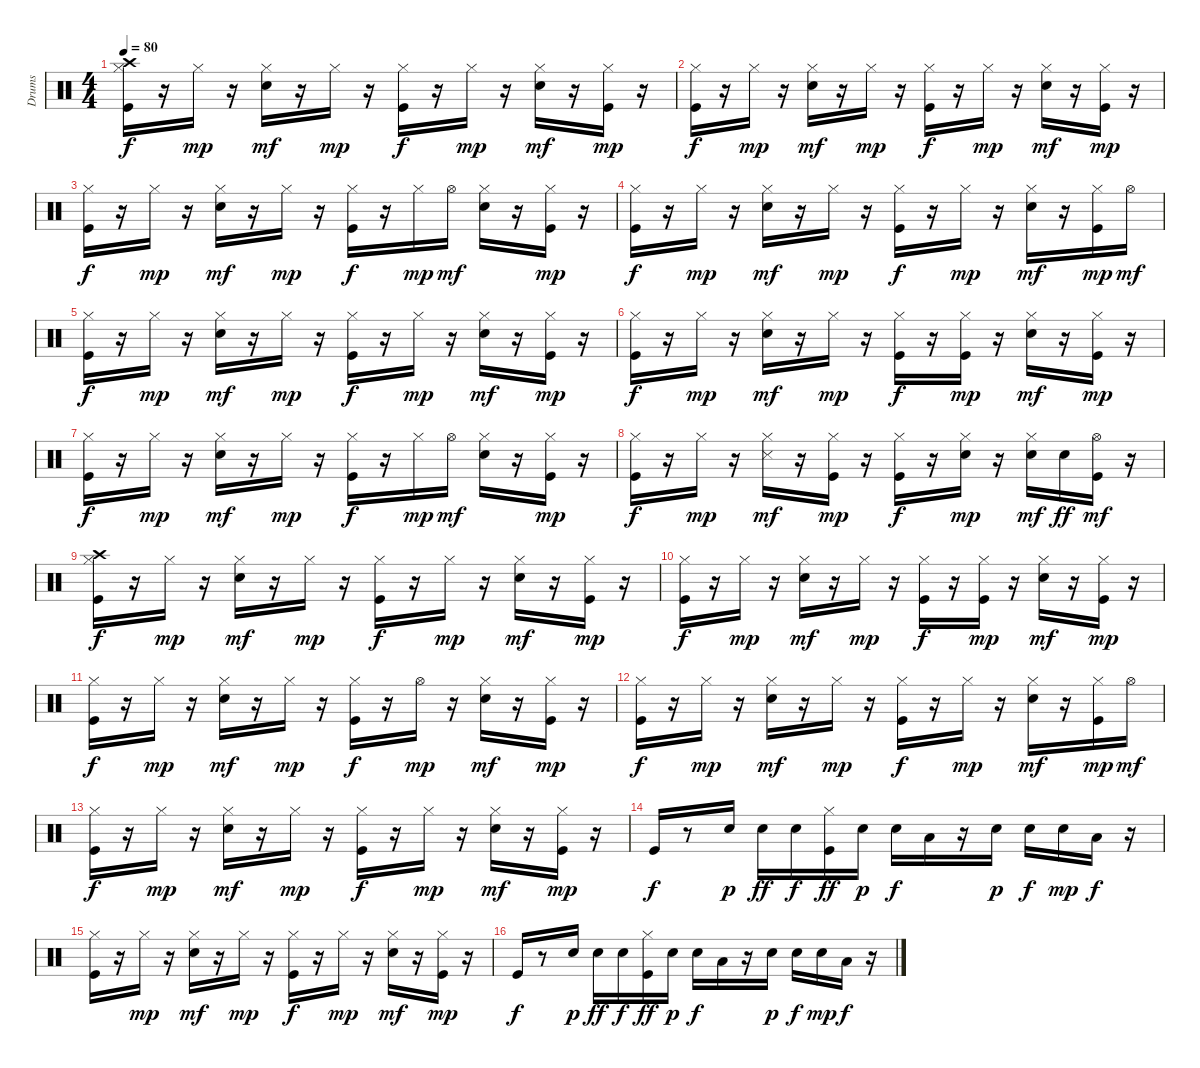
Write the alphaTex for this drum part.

\track ("Drums  " "Drums  ") {instrument percussion}
\staff {score}
\articulation defaults
\ts (4 4)
\tempo 80
\clef neutral
\ks c
("Kick (hit)" "Hi-Hat (closed)" "Crash high (hit)").16{dy f} r.16 "Hi-Hat (closed)".16{dy mp} r.16 ("Snare (hit) 2" "Hi-Hat (closed)").16{dy mf} r.16 "Hi-Hat (closed)".16{dy mp} r.16 ("Kick (hit)" "Hi-Hat (closed)").16{dy f} r.16 "Hi-Hat (closed)".16{dy mp} r.16 ("Snare (hit) 2" "Hi-Hat (closed)").16{dy mf} r.16 ("Kick (hit)" "Hi-Hat (closed)").16{dy mp} r.16 |
("Kick (hit)" "Hi-Hat (closed)").16{dy f} r.16 "Hi-Hat (closed)".16{dy mp} r.16 ("Snare (hit) 2" "Hi-Hat (closed)").16{dy mf} r.16 "Hi-Hat (closed)".16{dy mp} r.16 ("Kick (hit)" "Hi-Hat (closed)").16{dy f} r.16 "Hi-Hat (closed)".16{dy mp} r.16 ("Snare (hit) 2" "Hi-Hat (closed)").16{dy mf} r.16 ("Kick (hit)" "Hi-Hat (closed)").16{dy mp} r.16 |
("Kick (hit)" "Hi-Hat (closed)").16{dy f} r.16 "Hi-Hat (closed)".16{dy mp} r.16 ("Snare (hit) 2" "Hi-Hat (closed)").16{dy mf} r.16 "Hi-Hat (closed)".16{dy mp} r.16 ("Kick (hit)" "Hi-Hat (closed)").16{dy f} r.16 "Hi-Hat (closed)".16{dy mp} "Hi-Hat (open)".16{dy mf} ("Snare (hit) 2" "Hi-Hat (closed)").16 r.16 ("Kick (hit)" "Hi-Hat (closed)").16{dy mp} r.16 |
("Kick (hit)" "Hi-Hat (closed)").16{dy f} r.16 "Hi-Hat (closed)".16{dy mp} r.16 ("Snare (hit) 2" "Hi-Hat (closed)").16{dy mf} r.16 "Hi-Hat (closed)".16{dy mp} r.16 ("Kick (hit)" "Hi-Hat (closed)").16{dy f} r.16 "Hi-Hat (closed)".16{dy mp} r.16 ("Snare (hit) 2" "Hi-Hat (closed)").16{dy mf} r.16 ("Kick (hit)" "Hi-Hat (closed)").16{dy mp} "Hi-Hat (open)".16{dy mf} |
("Kick (hit)" "Hi-Hat (closed)").16{dy f} r.16 "Hi-Hat (closed)".16{dy mp} r.16 ("Snare (hit) 2" "Hi-Hat (closed)").16{dy mf} r.16 "Hi-Hat (closed)".16{dy mp} r.16 ("Kick (hit)" "Hi-Hat (closed)").16{dy f} r.16 "Hi-Hat (closed)".16{dy mp} r.16 ("Snare (hit) 2" "Hi-Hat (closed)").16{dy mf} r.16 ("Kick (hit)" "Hi-Hat (closed)").16{dy mp} r.16 |
("Kick (hit)" "Hi-Hat (closed)").16{dy f} r.16 "Hi-Hat (closed)".16{dy mp} r.16 ("Snare (hit) 2" "Hi-Hat (closed)").16{dy mf} r.16 "Hi-Hat (closed)".16{dy mp} r.16 ("Kick (hit)" "Hi-Hat (closed)").16{dy f} r.16 ("Kick (hit)" "Hi-Hat (closed)").16{dy mp} r.16 ("Snare (hit) 2" "Hi-Hat (closed)").16{dy mf} r.16 ("Kick (hit)" "Hi-Hat (closed)").16{dy mp} r.16 |
("Kick (hit)" "Hi-Hat (closed)").16{dy f} r.16 "Hi-Hat (closed)".16{dy mp} r.16 ("Snare (hit) 2" "Hi-Hat (closed)").16{dy mf} r.16 "Hi-Hat (closed)".16{dy mp} r.16 ("Kick (hit)" "Hi-Hat (closed)").16{dy f} r.16 "Hi-Hat (closed)".16{dy mp} "Hi-Hat (open)".16{dy mf} ("Snare (hit) 2" "Hi-Hat (closed)").16 r.16 ("Kick (hit)" "Hi-Hat (closed)").16{dy mp} r.16 |
("Kick (hit)" "Hi-Hat (closed)").16{dy f} r.16 "Hi-Hat (closed)".16{dy mp} r.16 ("Hi-Hat (closed)" "Snare (side stick) 3").16{dy mf} r.16 ("Kick (hit)" "Hi-Hat (closed)").16{dy mp} r.16 ("Kick (hit)" "Hi-Hat (closed)").16{dy f} r.16 ("Snare (hit) 2" "Hi-Hat (closed)").16{dy mp} r.16 ("Snare (hit) 2" "Hi-Hat (closed)").16{dy mf} "Snare (hit) 2".16{dy ff} ("Kick (hit)" "Hi-Hat (open)").16{dy mf} r.16 |
("Kick (hit)" "Hi-Hat (closed)" "Crash high (hit)").16{dy f} r.16 "Hi-Hat (closed)".16{dy mp} r.16 ("Snare (hit) 2" "Hi-Hat (closed)").16{dy mf} r.16 "Hi-Hat (closed)".16{dy mp} r.16 ("Kick (hit)" "Hi-Hat (closed)").16{dy f} r.16 "Hi-Hat (closed)".16{dy mp} r.16 ("Snare (hit) 2" "Hi-Hat (closed)").16{dy mf} r.16 ("Kick (hit)" "Hi-Hat (closed)").16{dy mp} r.16 |
("Kick (hit)" "Hi-Hat (closed)").16{dy f} r.16 "Hi-Hat (closed)".16{dy mp} r.16 ("Snare (hit) 2" "Hi-Hat (closed)").16{dy mf} r.16 "Hi-Hat (closed)".16{dy mp} r.16 ("Kick (hit)" "Hi-Hat (closed)").16{dy f} r.16 ("Kick (hit)" "Hi-Hat (closed)").16{dy mp} r.16 ("Snare (hit) 2" "Hi-Hat (closed)").16{dy mf} r.16 ("Kick (hit)" "Hi-Hat (closed)").16{dy mp} r.16 |
("Kick (hit)" "Hi-Hat (closed)").16{dy f} r.16 "Hi-Hat (closed)".16{dy mp} r.16 ("Snare (hit) 2" "Hi-Hat (closed)").16{dy mf} r.16 "Hi-Hat (closed)".16{dy mp} r.16 ("Kick (hit)" "Hi-Hat (closed)").16{dy f} r.16 "Hi-Hat (open)".16{dy mp} r.16 ("Snare (hit) 2" "Hi-Hat (closed)").16{dy mf} r.16 ("Kick (hit)" "Hi-Hat (closed)").16{dy mp} r.16 |
("Kick (hit)" "Hi-Hat (closed)").16{dy f} r.16 "Hi-Hat (closed)".16{dy mp} r.16 ("Snare (hit) 2" "Hi-Hat (closed)").16{dy mf} r.16 "Hi-Hat (closed)".16{dy mp} r.16 ("Kick (hit)" "Hi-Hat (closed)").16{dy f} r.16 "Hi-Hat (closed)".16{dy mp} r.16 ("Snare (hit) 2" "Hi-Hat (closed)").16{dy mf} r.16 ("Kick (hit)" "Hi-Hat (closed)").16{dy mp} "Hi-Hat (open)".16{dy mf} |
("Kick (hit)" "Hi-Hat (closed)").16{dy f} r.16 "Hi-Hat (closed)".16{dy mp} r.16 ("Snare (hit) 2" "Hi-Hat (closed)").16{dy mf} r.16 "Hi-Hat (closed)".16{dy mp} r.16 ("Kick (hit)" "Hi-Hat (closed)").16{dy f} r.16 "Hi-Hat (closed)".16{dy mp} r.16 ("Snare (hit) 2" "Hi-Hat (closed)").16{dy mf} r.16 ("Kick (hit)" "Hi-Hat (closed)").16{dy mp} r.16 |
"Kick (hit)".16{dy f} r.8 "Snare (hit) 2".16{dy p} "Snare (hit) 2".16{dy ff} "Snare (hit) 2".16{dy f} ("Kick (hit)" "Hi-Hat (closed)").16{dy ff} "Snare (hit) 2".16{dy p} "Snare (hit) 2".16{dy f} "Low Tom (hit)".16 r.16 "Snare (hit) 2".16{dy p} "Snare (hit) 2".16{dy f} "Snare (hit) 2".16{dy mp} "Low Floor Tom (hit)".16{dy f} r.16 |
("Kick (hit)" "Hi-Hat (closed)").16 r.16 "Hi-Hat (closed)".16{dy mp} r.16 ("Snare (hit) 2" "Hi-Hat (closed)").16{dy mf} r.16 "Hi-Hat (closed)".16{dy mp} r.16 ("Kick (hit)" "Hi-Hat (closed)").16{dy f} r.16 "Hi-Hat (closed)".16{dy mp} r.16 ("Snare (hit) 2" "Hi-Hat (closed)").16{dy mf} r.16 ("Kick (hit)" "Hi-Hat (closed)").16{dy mp} r.16 |
"Kick (hit)".16{dy f} r.8 "Snare (hit) 2".16{dy p} "Snare (hit) 2".16{dy ff} "Snare (hit) 2".16{dy f} ("Kick (hit)" "Hi-Hat (closed)").16{dy ff} "Snare (hit) 2".16{dy p} "Snare (hit) 2".16{dy f} "Low Tom (hit)".16 r.16 "Snare (hit) 2".16{dy p} "Snare (hit) 2".16{dy f} "Snare (hit) 2".16{dy mp} "Low Floor Tom (hit)".16{dy f} r.16
